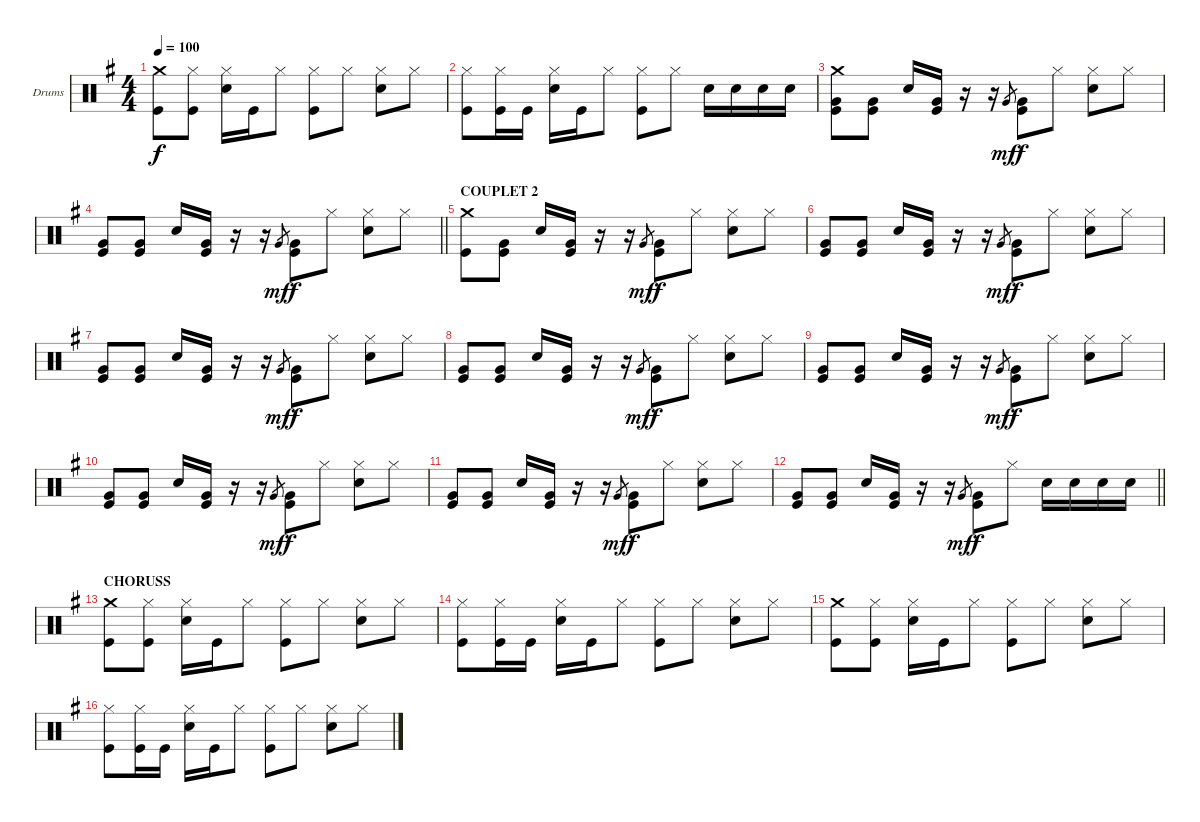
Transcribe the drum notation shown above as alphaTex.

\bracketExtendMode groupsimilarinstruments
\firstSystemTrackNameOrientation horizontal
\otherSystemsTrackNameOrientation horizontal
\track ("Drumkit" "Drums") {instrument percussion}
\staff {score}
\articulation defaults
\ts (4 4)
\tempo 100
\clef neutral
\ks eminor
("Crash medium (hit)" "Kick (hit)").8{dy f} ("Hi-Hat (closed)" "Kick (hit)").8 ("Hi-Hat (closed)" "Snare (hit) 2").16 "Kick (hit)".16 "Hi-Hat (closed)".8 ("Hi-Hat (closed)" "Kick (hit)").8 "Hi-Hat (closed)".8 ("Hi-Hat (closed)" "Snare (hit) 2").8 "Hi-Hat (closed)".8 |
("Hi-Hat (closed)" "Kick (hit)").8 ("Hi-Hat (closed)" "Kick (hit)").16 "Kick (hit)".16 ("Hi-Hat (closed)" "Snare (hit) 2").16 "Kick (hit)".16 "Hi-Hat (closed)".8 ("Hi-Hat (closed)" "Kick (hit)").8 "Hi-Hat (closed)".8 "Snare (hit) 2".16 "Snare (hit) 2".16 "Snare (hit) 2".16 "Snare (hit) 2".16 |
("Very Low Tom (hit)" "Kick (hit)" "Crash medium (hit)").8 ("Very Low Tom (hit)" "Kick (hit)").8 "Snare (hit) 2".16 ("Very Low Tom (hit)" "Kick (hit)").16 r.16 r.16 "Very Low Tom (hit)".8{gr dy mf} ("Very Low Tom (hit)" "Kick (hit)").8{dy f} "Hi-Hat (closed)".8 ("Hi-Hat (closed)" "Snare (hit) 2").8 "Hi-Hat (closed)".8 |
\barLineRight lightlight
("Very Low Tom (hit)" "Kick (hit)").8 ("Very Low Tom (hit)" "Kick (hit)").8 "Snare (hit) 2".16 ("Very Low Tom (hit)" "Kick (hit)").16 r.16 r.16 "Very Low Tom (hit)".8{gr dy mf} ("Very Low Tom (hit)" "Kick (hit)").8{dy f} "Hi-Hat (closed)".8 ("Hi-Hat (closed)" "Snare (hit) 2").8 "Hi-Hat (closed)".8 |
\section ("" "COUPLET 2")
("Crash medium (hit)" "Kick (hit)").8 ("Very Low Tom (hit)" "Kick (hit)").8 "Snare (hit) 2".16 ("Very Low Tom (hit)" "Kick (hit)").16 r.16 r.16 "Very Low Tom (hit)".8{gr dy mf} ("Very Low Tom (hit)" "Kick (hit)").8{dy f} "Hi-Hat (closed)".8 ("Hi-Hat (closed)" "Snare (hit) 2").8 "Hi-Hat (closed)".8 |
("Very Low Tom (hit)" "Kick (hit)").8 ("Very Low Tom (hit)" "Kick (hit)").8 "Snare (hit) 2".16 ("Very Low Tom (hit)" "Kick (hit)").16 r.16 r.16 "Very Low Tom (hit)".8{gr dy mf} ("Very Low Tom (hit)" "Kick (hit)").8{dy f} "Hi-Hat (closed)".8 ("Hi-Hat (closed)" "Snare (hit) 2").8 "Hi-Hat (closed)".8 |
("Very Low Tom (hit)" "Kick (hit)").8 ("Very Low Tom (hit)" "Kick (hit)").8 "Snare (hit) 2".16 ("Very Low Tom (hit)" "Kick (hit)").16 r.16 r.16 "Very Low Tom (hit)".8{gr dy mf} ("Very Low Tom (hit)" "Kick (hit)").8{dy f} "Hi-Hat (closed)".8 ("Hi-Hat (closed)" "Snare (hit) 2").8 "Hi-Hat (closed)".8 |
("Very Low Tom (hit)" "Kick (hit)").8 ("Very Low Tom (hit)" "Kick (hit)").8 "Snare (hit) 2".16 ("Very Low Tom (hit)" "Kick (hit)").16 r.16 r.16 "Very Low Tom (hit)".8{gr dy mf} ("Very Low Tom (hit)" "Kick (hit)").8{dy f} "Hi-Hat (closed)".8 ("Hi-Hat (closed)" "Snare (hit) 2").8 "Hi-Hat (closed)".8 |
("Very Low Tom (hit)" "Kick (hit)").8 ("Very Low Tom (hit)" "Kick (hit)").8 "Snare (hit) 2".16 ("Very Low Tom (hit)" "Kick (hit)").16 r.16 r.16 "Very Low Tom (hit)".8{gr dy mf} ("Very Low Tom (hit)" "Kick (hit)").8{dy f} "Hi-Hat (closed)".8 ("Hi-Hat (closed)" "Snare (hit) 2").8 "Hi-Hat (closed)".8 |
("Very Low Tom (hit)" "Kick (hit)").8 ("Very Low Tom (hit)" "Kick (hit)").8 "Snare (hit) 2".16 ("Very Low Tom (hit)" "Kick (hit)").16 r.16 r.16 "Very Low Tom (hit)".8{gr dy mf} ("Very Low Tom (hit)" "Kick (hit)").8{dy f} "Hi-Hat (closed)".8 ("Hi-Hat (closed)" "Snare (hit) 2").8 "Hi-Hat (closed)".8 |
("Very Low Tom (hit)" "Kick (hit)").8 ("Very Low Tom (hit)" "Kick (hit)").8 "Snare (hit) 2".16 ("Very Low Tom (hit)" "Kick (hit)").16 r.16 r.16 "Very Low Tom (hit)".8{gr dy mf} ("Very Low Tom (hit)" "Kick (hit)").8{dy f} "Hi-Hat (closed)".8 ("Hi-Hat (closed)" "Snare (hit) 2").8 "Hi-Hat (closed)".8 |
\barLineRight lightlight
("Very Low Tom (hit)" "Kick (hit)").8 ("Very Low Tom (hit)" "Kick (hit)").8 "Snare (hit) 2".16 ("Very Low Tom (hit)" "Kick (hit)").16 r.16 r.16 "Very Low Tom (hit)".8{gr dy mf} ("Very Low Tom (hit)" "Kick (hit)").8{dy f} "Hi-Hat (closed)".8 "Snare (hit) 2".16 "Snare (hit) 2".16 "Snare (hit) 2".16 "Snare (hit) 2".16 |
\section ("" "CHORUSS")
("Crash medium (hit)" "Kick (hit)").8 ("Hi-Hat (closed)" "Kick (hit)").8 ("Hi-Hat (closed)" "Snare (hit) 2").16 "Kick (hit)".16 "Hi-Hat (closed)".8 ("Hi-Hat (closed)" "Kick (hit)").8 "Hi-Hat (closed)".8 ("Hi-Hat (closed)" "Snare (hit) 2").8 "Hi-Hat (closed)".8 |
("Hi-Hat (closed)" "Kick (hit)").8 ("Hi-Hat (closed)" "Kick (hit)").16 "Kick (hit)".16 ("Hi-Hat (closed)" "Snare (hit) 2").16 "Kick (hit)".16 "Hi-Hat (closed)".8 ("Hi-Hat (closed)" "Kick (hit)").8 "Hi-Hat (closed)".8 ("Hi-Hat (closed)" "Snare (hit) 2").8 "Hi-Hat (closed)".8 |
("Crash medium (hit)" "Kick (hit)").8 ("Hi-Hat (closed)" "Kick (hit)").8 ("Hi-Hat (closed)" "Snare (hit) 2").16 "Kick (hit)".16 "Hi-Hat (closed)".8 ("Hi-Hat (closed)" "Kick (hit)").8 "Hi-Hat (closed)".8 ("Hi-Hat (closed)" "Snare (hit) 2").8 "Hi-Hat (closed)".8 |
("Hi-Hat (closed)" "Kick (hit)").8 ("Hi-Hat (closed)" "Kick (hit)").16 "Kick (hit)".16 ("Hi-Hat (closed)" "Snare (hit) 2").16 "Kick (hit)".16 "Hi-Hat (closed)".8 ("Hi-Hat (closed)" "Kick (hit)").8 "Hi-Hat (closed)".8 ("Hi-Hat (closed)" "Snare (hit) 2").8 "Hi-Hat (closed)".8
